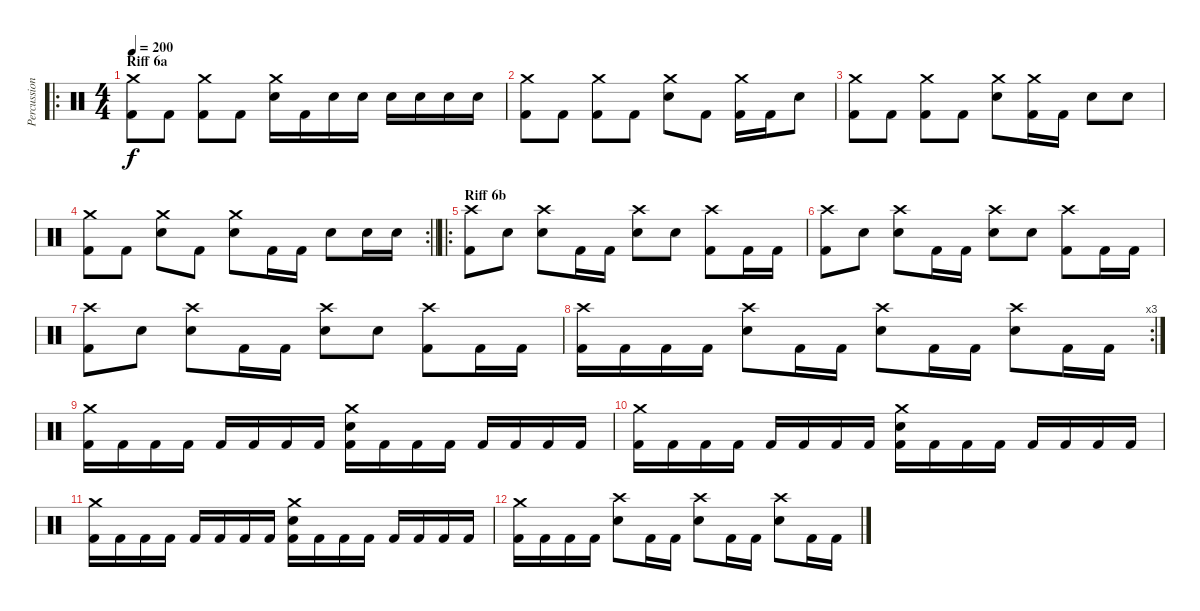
\track ("Percussion" "Percussion") {instrument percussion}
\staff {score}
\articulation defaults
\ro
\ts (4 4)
\section ("" "Riff 6a")
\tempo 200
\clef neutral
\ks c
("Crash medium (hit)" "Kick (hit) 2").8{dy f} "Kick (hit) 2".8 ("Crash medium (hit)" "Kick (hit) 2").8 "Kick (hit) 2".8 ("Crash medium (hit)" "Electric Snare (hit)").16 "Kick (hit) 2".16 "Electric Snare (hit)".16 "Electric Snare (hit)".16 "Electric Snare (hit)".16 "Electric Snare (hit)".16 "Electric Snare (hit)".16 "Electric Snare (hit)".16 |
("Crash medium (hit)" "Kick (hit) 2").8 "Kick (hit) 2".8 ("Crash medium (hit)" "Kick (hit) 2").8 "Kick (hit) 2".8 ("Crash medium (hit)" "Electric Snare (hit)").8 "Kick (hit) 2".8 ("Crash medium (hit)" "Kick (hit) 2").16 "Kick (hit) 2".16 "Electric Snare (hit)".8 |
("Crash medium (hit)" "Kick (hit) 2").8 "Kick (hit) 2".8 ("Crash medium (hit)" "Kick (hit) 2").8 "Kick (hit) 2".8 ("Crash medium (hit)" "Electric Snare (hit)").8 ("Crash medium (hit)" "Kick (hit) 2").16 "Kick (hit) 2".16 "Electric Snare (hit)".8 "Electric Snare (hit)".8 |
\rc 2
\barLineRight lightlight
("Crash medium (hit)" "Kick (hit) 2").8 "Kick (hit) 2".8 ("Crash medium (hit)" "Electric Snare (hit)").8 "Kick (hit) 2".8 ("Crash medium (hit)" "Electric Snare (hit)").8 "Kick (hit) 2".16 "Kick (hit) 2".16 "Electric Snare (hit)".8 "Electric Snare (hit)".16 "Electric Snare (hit)".16 |
\ro
\section ("" "Riff 6b")
("Crash high (hit)" "Kick (hit) 2").8 "Electric Snare (hit)".8 ("Crash high (hit)" "Electric Snare (hit)").8 "Kick (hit) 2".16 "Kick (hit) 2".16 ("Crash high (hit)" "Electric Snare (hit)").8 "Electric Snare (hit)".8 ("Crash high (hit)" "Kick (hit) 2").8 "Kick (hit) 2".16 "Kick (hit) 2".16 |
("Crash high (hit)" "Kick (hit) 2").8 "Electric Snare (hit)".8 ("Crash high (hit)" "Electric Snare (hit)").8 "Kick (hit) 2".16 "Kick (hit) 2".16 ("Crash high (hit)" "Electric Snare (hit)").8 "Electric Snare (hit)".8 ("Crash high (hit)" "Kick (hit) 2").8 "Kick (hit) 2".16 "Kick (hit) 2".16 |
("Crash high (hit)" "Kick (hit) 2").8 "Electric Snare (hit)".8 ("Crash high (hit)" "Electric Snare (hit)").8 "Kick (hit) 2".16 "Kick (hit) 2".16 ("Crash high (hit)" "Electric Snare (hit)").8 "Electric Snare (hit)".8 ("Crash high (hit)" "Kick (hit) 2").8 "Kick (hit) 2".16 "Kick (hit) 2".16 |
\rc 3
("Crash high (hit)" "Kick (hit) 2").16 "Kick (hit) 2".16 "Kick (hit) 2".16 "Kick (hit) 2".16 ("Crash high (hit)" "Electric Snare (hit)").8 "Kick (hit) 2".16 "Kick (hit) 2".16 ("Crash high (hit)" "Electric Snare (hit)").8 "Kick (hit) 2".16 "Kick (hit) 2".16 ("Crash high (hit)" "Electric Snare (hit)").8 "Kick (hit) 2".16 "Kick (hit) 2".16 |
("Crash medium (hit)" "Kick (hit) 2").16 "Kick (hit) 2".16 "Kick (hit) 2".16 "Kick (hit) 2".16 "Kick (hit) 2".16 "Kick (hit) 2".16 "Kick (hit) 2".16 "Kick (hit) 2".16 ("Crash medium (hit)" "Electric Snare (hit)" "Kick (hit) 2").16 "Kick (hit) 2".16 "Kick (hit) 2".16 "Kick (hit) 2".16 "Kick (hit) 2".16 "Kick (hit) 2".16 "Kick (hit) 2".16 "Kick (hit) 2".16 |
("Crash medium (hit)" "Kick (hit) 2").16 "Kick (hit) 2".16 "Kick (hit) 2".16 "Kick (hit) 2".16 "Kick (hit) 2".16 "Kick (hit) 2".16 "Kick (hit) 2".16 "Kick (hit) 2".16 ("Crash medium (hit)" "Electric Snare (hit)" "Kick (hit) 2").16 "Kick (hit) 2".16 "Kick (hit) 2".16 "Kick (hit) 2".16 "Kick (hit) 2".16 "Kick (hit) 2".16 "Kick (hit) 2".16 "Kick (hit) 2".16 |
("Crash medium (hit)" "Kick (hit) 2").16 "Kick (hit) 2".16 "Kick (hit) 2".16 "Kick (hit) 2".16 "Kick (hit) 2".16 "Kick (hit) 2".16 "Kick (hit) 2".16 "Kick (hit) 2".16 ("Crash medium (hit)" "Electric Snare (hit)" "Kick (hit) 2").16 "Kick (hit) 2".16 "Kick (hit) 2".16 "Kick (hit) 2".16 "Kick (hit) 2".16 "Kick (hit) 2".16 "Kick (hit) 2".16 "Kick (hit) 2".16 |
("Crash medium (hit)" "Kick (hit) 2").16 "Kick (hit) 2".16 "Kick (hit) 2".16 "Kick (hit) 2".16 ("Crash high (hit)" "Electric Snare (hit)").8 "Kick (hit) 2".16 "Kick (hit) 2".16 ("Crash high (hit)" "Electric Snare (hit)").8 "Kick (hit) 2".16 "Kick (hit) 2".16 ("Crash high (hit)" "Electric Snare (hit)").8 "Kick (hit) 2".16 "Kick (hit) 2".16
